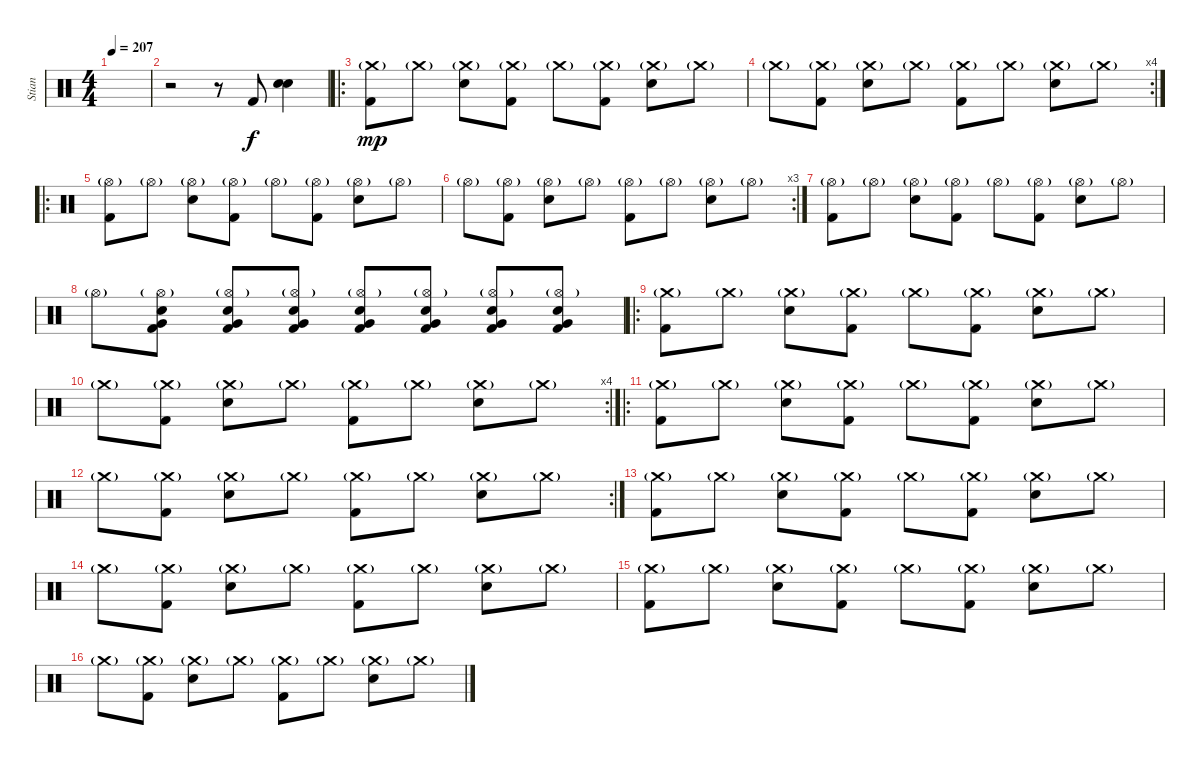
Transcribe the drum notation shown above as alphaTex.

\track ("Stian" "Stian") {instrument percussion}
\staff {score}
\articulation defaults
\ts (4 4)
\tempo 207
\clef neutral
\ks c
|
r.2 r.8 "Kick (hit) 2".8 ("Electric Snare (hit)" "Electric Snare (hit)").4{bu 120} |
\ro
("Crash medium (hit)"{g} "Kick (hit) 2").8{dy mp} "Crash medium (hit)"{g}.8 ("Crash medium (hit)"{g} "Electric Snare (hit)").8 ("Crash medium (hit)"{g} "Kick (hit) 2").8 "Crash medium (hit)"{g}.8 ("Crash medium (hit)"{g} "Kick (hit) 2").8 ("Crash medium (hit)"{g} "Electric Snare (hit)").8 "Crash medium (hit)"{g}.8 |
\rc 4 "Crash medium (hit)"{g}.8
("Crash medium (hit)"{g} "Kick (hit) 2").8 ("Crash medium (hit)"{g} "Electric Snare (hit)").8 "Crash medium (hit)"{g}.8 ("Crash medium (hit)"{g} "Kick (hit) 2").8 "Crash medium (hit)"{g}.8 ("Crash medium (hit)"{g} "Electric Snare (hit)").8 "Crash medium (hit)"{g}.8 |
\ro
("Hi-Hat (open)"{g} "Kick (hit) 2").8 "Hi-Hat (open)"{g}.8 ("Hi-Hat (open)"{g} "Electric Snare (hit)").8 ("Hi-Hat (open)"{g} "Kick (hit) 2").8 "Hi-Hat (open)"{g}.8 ("Hi-Hat (open)"{g} "Kick (hit) 2").8 ("Hi-Hat (open)"{g} "Electric Snare (hit)").8 "Hi-Hat (open)"{g}.8 |
\rc 3 "Hi-Hat (open)"{g}.8
("Hi-Hat (open)"{g} "Kick (hit) 2").8 ("Hi-Hat (open)"{g} "Electric Snare (hit)").8 "Hi-Hat (open)"{g}.8 ("Hi-Hat (open)"{g} "Kick (hit) 2").8 "Hi-Hat (open)"{g}.8 ("Hi-Hat (open)"{g} "Electric Snare (hit)").8 "Hi-Hat (open)"{g}.8 |
("Hi-Hat (open)"{g} "Kick (hit) 2").8 "Hi-Hat (open)"{g}.8 ("Hi-Hat (open)"{g} "Electric Snare (hit)").8 ("Hi-Hat (open)"{g} "Kick (hit) 2").8 "Hi-Hat (open)"{g}.8 ("Hi-Hat (open)"{g} "Kick (hit) 2").8 ("Hi-Hat (open)"{g} "Electric Snare (hit)").8 "Hi-Hat (open)"{g}.8 |
"Hi-Hat (open)"{g}.8 ("Hi-Hat (open)"{g} "Electric Snare (hit)" "Very Low Tom (hit)" "Kick (hit) 2").8 ("Hi-Hat (open)"{g} "Electric Snare (hit)" "Very Low Tom (hit)" "Kick (hit) 2").8 ("Hi-Hat (open)"{g} "Electric Snare (hit)" "Very Low Tom (hit)" "Kick (hit) 2").8 ("Hi-Hat (open)"{g} "Electric Snare (hit)" "Very Low Tom (hit)" "Kick (hit) 2").8 ("Hi-Hat (open)"{g} "Electric Snare (hit)" "Very Low Tom (hit)" "Kick (hit) 2").8 ("Hi-Hat (open)"{g} "Electric Snare (hit)" "Very Low Tom (hit)" "Kick (hit) 2").8 ("Hi-Hat (open)"{g} "Electric Snare (hit)" "Very Low Tom (hit)" "Kick (hit) 2").8 |
\ro
("Crash medium (hit)"{g} "Kick (hit) 2").8 "Crash medium (hit)"{g}.8 ("Crash medium (hit)"{g} "Electric Snare (hit)").8 ("Crash medium (hit)"{g} "Kick (hit) 2").8 "Crash medium (hit)"{g}.8 ("Crash medium (hit)"{g} "Kick (hit) 2").8 ("Crash medium (hit)"{g} "Electric Snare (hit)").8 "Crash medium (hit)"{g}.8 |
\rc 4 "Crash medium (hit)"{g}.8
("Crash medium (hit)"{g} "Kick (hit) 2").8 ("Crash medium (hit)"{g} "Electric Snare (hit)").8 "Crash medium (hit)"{g}.8 ("Crash medium (hit)"{g} "Kick (hit) 2").8 "Crash medium (hit)"{g}.8 ("Crash medium (hit)"{g} "Electric Snare (hit)").8 "Crash medium (hit)"{g}.8 |
\ro
("Crash medium (hit)"{g} "Kick (hit) 2").8 "Crash medium (hit)"{g}.8 ("Crash medium (hit)"{g} "Electric Snare (hit)").8 ("Crash medium (hit)"{g} "Kick (hit) 2").8 "Crash medium (hit)"{g}.8 ("Crash medium (hit)"{g} "Kick (hit) 2").8 ("Crash medium (hit)"{g} "Electric Snare (hit)").8 "Crash medium (hit)"{g}.8 |
\rc 2 "Crash medium (hit)"{g}.8
("Crash medium (hit)"{g} "Kick (hit) 2").8 ("Crash medium (hit)"{g} "Electric Snare (hit)").8 "Crash medium (hit)"{g}.8 ("Crash medium (hit)"{g} "Kick (hit) 2").8 "Crash medium (hit)"{g}.8 ("Crash medium (hit)"{g} "Electric Snare (hit)").8 "Crash medium (hit)"{g}.8 |
("Crash medium (hit)"{g} "Kick (hit) 2").8 "Crash medium (hit)"{g}.8 ("Crash medium (hit)"{g} "Electric Snare (hit)").8 ("Crash medium (hit)"{g} "Kick (hit) 2").8 "Crash medium (hit)"{g}.8 ("Crash medium (hit)"{g} "Kick (hit) 2").8 ("Crash medium (hit)"{g} "Electric Snare (hit)").8 "Crash medium (hit)"{g}.8 |
"Crash medium (hit)"{g}.8 ("Crash medium (hit)"{g} "Kick (hit) 2").8 ("Crash medium (hit)"{g} "Electric Snare (hit)").8 "Crash medium (hit)"{g}.8 ("Crash medium (hit)"{g} "Kick (hit) 2").8 "Crash medium (hit)"{g}.8 ("Crash medium (hit)"{g} "Electric Snare (hit)").8 "Crash medium (hit)"{g}.8 |
("Crash medium (hit)"{g} "Kick (hit) 2").8 "Crash medium (hit)"{g}.8 ("Crash medium (hit)"{g} "Electric Snare (hit)").8 ("Crash medium (hit)"{g} "Kick (hit) 2").8 "Crash medium (hit)"{g}.8 ("Crash medium (hit)"{g} "Kick (hit) 2").8 ("Crash medium (hit)"{g} "Electric Snare (hit)").8 "Crash medium (hit)"{g}.8 |
"Crash medium (hit)"{g}.8 ("Crash medium (hit)"{g} "Kick (hit) 2").8 ("Crash medium (hit)"{g} "Electric Snare (hit)").8 "Crash medium (hit)"{g}.8 ("Crash medium (hit)"{g} "Kick (hit) 2").8 "Crash medium (hit)"{g}.8 ("Crash medium (hit)"{g} "Electric Snare (hit)").8 "Crash medium (hit)"{g}.8
